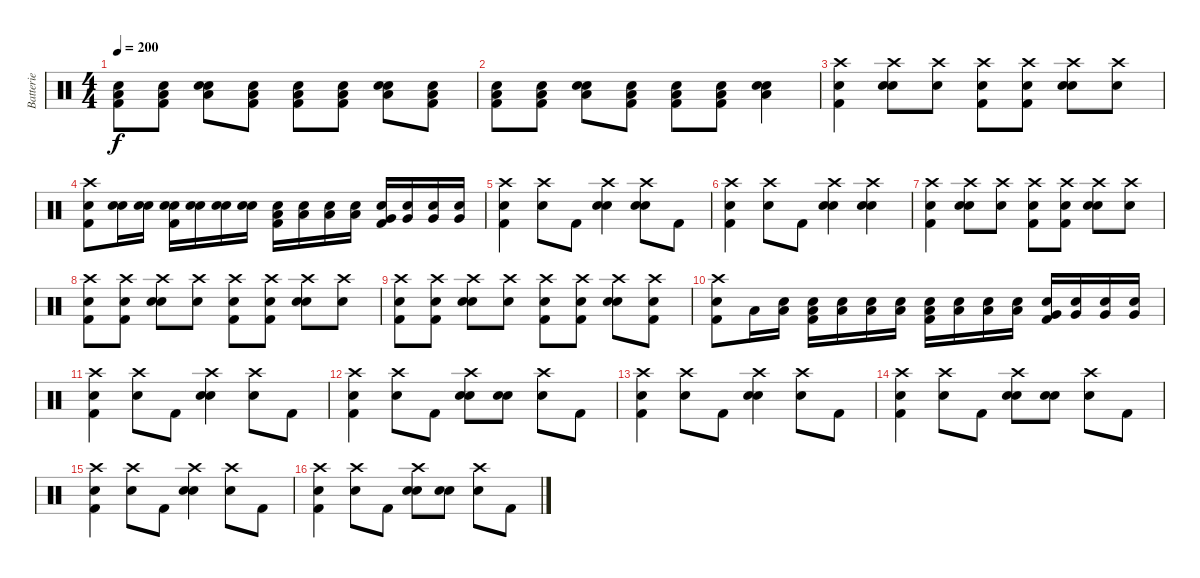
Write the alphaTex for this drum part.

\track ("Batterie" "Batterie") {instrument percussion}
\staff {score}
\articulation defaults
\ts (4 4)
\tempo 200
\clef neutral
\ks c
("Snare (hit)" "Kick (hit) 2" "Low Floor Tom (hit)").8{dy f} ("Snare (hit)" "Kick (hit) 2" "Low Floor Tom (hit)").8 ("Snare (hit)" "Low Floor Tom (hit)" "Electric Snare (hit)").8 ("Snare (hit)" "Kick (hit) 2" "Low Floor Tom (hit)").8 ("Snare (hit)" "Kick (hit) 2" "Low Floor Tom (hit)").8 ("Snare (hit)" "Kick (hit) 2" "Low Floor Tom (hit)").8 ("Snare (hit)" "Low Floor Tom (hit)" "Electric Snare (hit)").8 ("Snare (hit)" "Kick (hit) 2" "Low Floor Tom (hit)").8 |
("Snare (hit)" "Low Floor Tom (hit)" "Kick (hit) 2").8 ("Snare (hit)" "Low Floor Tom (hit)" "Kick (hit) 2").8 ("Snare (hit)" "Low Floor Tom (hit)" "Electric Snare (hit)").8 ("Snare (hit)" "Low Floor Tom (hit)" "Kick (hit) 2").8 ("Snare (hit)" "Low Floor Tom (hit)" "Kick (hit) 2").8 ("Snare (hit)" "Low Floor Tom (hit)" "Kick (hit) 2").8 ("Snare (hit)" "Electric Snare (hit)" "Low Floor Tom (hit)").4 |
("Snare (hit)" "Crash high (hit)" "Kick (hit) 2").4 ("Snare (hit)" "Crash high (hit)" "Electric Snare (hit)").8 ("Snare (hit)" "Crash high (hit)").8 ("Snare (hit)" "Crash high (hit)" "Kick (hit) 2").8 ("Snare (hit)" "Crash high (hit)" "Kick (hit) 2").8 ("Snare (hit)" "Crash high (hit)" "Electric Snare (hit)").8 ("Snare (hit)" "Crash high (hit)").8 |
("Snare (hit)" "Crash high (hit)" "Kick (hit) 2").8 ("Snare (hit)" "Electric Snare (hit)").16 ("Snare (hit)" "Electric Snare (hit)").16 ("Snare (hit)" "Electric Snare (hit)" "Kick (hit) 2").16 ("Snare (hit)" "Electric Snare (hit)").16 ("Snare (hit)" "Electric Snare (hit)").16 ("Snare (hit)" "Electric Snare (hit)").16 ("Snare (hit)" "Low Floor Tom (hit)" "Kick (hit) 2").16 ("Snare (hit)" "Low Floor Tom (hit)").16 ("Snare (hit)" "Low Floor Tom (hit)").16 ("Snare (hit)" "Low Floor Tom (hit)").16 ("Snare (hit)" "Very Low Tom (hit)" "Kick (hit) 2").16 ("Snare (hit)" "Very Low Tom (hit)").16 ("Snare (hit)" "Very Low Tom (hit)").16 ("Snare (hit)" "Very Low Tom (hit)").16 |
("Snare (hit)" "Crash high (hit)" "Kick (hit) 2").4 ("Snare (hit)" "Crash high (hit)").8 "Kick (hit) 2".8 ("Snare (hit)" "Crash high (hit)" "Electric Snare (hit)").4 ("Snare (hit)" "Crash high (hit)" "Electric Snare (hit)").8 "Kick (hit) 2".8 |
("Snare (hit)" "Crash high (hit)" "Kick (hit) 2").4 ("Snare (hit)" "Crash high (hit)").8 "Kick (hit) 2".8 ("Snare (hit)" "Crash high (hit)" "Electric Snare (hit)").4 ("Snare (hit)" "Crash high (hit)" "Electric Snare (hit)").4 |
("Snare (hit)" "Crash high (hit)" "Kick (hit) 2").4 ("Snare (hit)" "Crash high (hit)" "Electric Snare (hit)").8 ("Snare (hit)" "Crash high (hit)").8 ("Snare (hit)" "Crash high (hit)" "Kick (hit) 2").8 ("Snare (hit)" "Crash high (hit)" "Kick (hit) 2").8 ("Snare (hit)" "Crash high (hit)" "Electric Snare (hit)").8 ("Snare (hit)" "Crash high (hit)").8 |
("Snare (hit)" "Crash high (hit)" "Kick (hit) 2").8 ("Snare (hit)" "Crash high (hit)" "Kick (hit) 2").8 ("Snare (hit)" "Crash high (hit)" "Electric Snare (hit)").8 ("Snare (hit)" "Crash high (hit)").8 ("Snare (hit)" "Crash high (hit)" "Kick (hit) 2").8 ("Snare (hit)" "Crash high (hit)" "Kick (hit) 2").8 ("Snare (hit)" "Crash high (hit)" "Electric Snare (hit)").8 ("Snare (hit)" "Crash high (hit)").8 |
("Snare (hit)" "Crash high (hit)" "Kick (hit) 2").8 ("Snare (hit)" "Crash high (hit)" "Kick (hit) 2").8 ("Snare (hit)" "Crash high (hit)" "Electric Snare (hit)").8 ("Snare (hit)" "Crash high (hit)").8 ("Snare (hit)" "Crash high (hit)" "Kick (hit) 2").8 ("Snare (hit)" "Crash high (hit)" "Kick (hit) 2").8 ("Snare (hit)" "Crash high (hit)" "Electric Snare (hit)").8 ("Snare (hit)" "Crash high (hit)" "Kick (hit) 2").8 |
("Snare (hit)" "Crash high (hit)" "Kick (hit) 2").8 "Low Floor Tom (hit)".16 ("Snare (hit)" "Low Floor Tom (hit)").16 ("Snare (hit)" "Low Floor Tom (hit)" "Kick (hit) 2").16 ("Snare (hit)" "Low Floor Tom (hit)").16 ("Snare (hit)" "Low Floor Tom (hit)").16 ("Snare (hit)" "Low Floor Tom (hit)").16 ("Snare (hit)" "Low Floor Tom (hit)" "Kick (hit) 2").16 ("Snare (hit)" "Low Floor Tom (hit)").16 ("Snare (hit)" "Low Floor Tom (hit)").16 ("Snare (hit)" "Low Floor Tom (hit)").16 ("Snare (hit)" "Very Low Tom (hit)" "Kick (hit) 2").16 ("Snare (hit)" "Very Low Tom (hit)").16 ("Snare (hit)" "Very Low Tom (hit)").16 ("Snare (hit)" "Very Low Tom (hit)").16 |
("Snare (hit)" "Crash high (hit)" "Kick (hit) 2").4 ("Snare (hit)" "Crash high (hit)").8 "Kick (hit) 2".8 ("Snare (hit)" "Crash high (hit)" "Electric Snare (hit)").4 ("Snare (hit)" "Crash high (hit)").8 "Kick (hit) 2".8 |
("Snare (hit)" "Crash high (hit)" "Kick (hit) 2").4 ("Snare (hit)" "Crash high (hit)").8 "Kick (hit) 2".8 ("Snare (hit)" "Crash high (hit)" "Electric Snare (hit)").8 ("Snare (hit)" "Electric Snare (hit)").8 ("Snare (hit)" "Crash high (hit)").8 "Kick (hit) 2".8 |
("Snare (hit)" "Crash high (hit)" "Kick (hit) 2").4 ("Snare (hit)" "Crash high (hit)").8 "Kick (hit) 2".8 ("Snare (hit)" "Crash high (hit)" "Electric Snare (hit)").4 ("Snare (hit)" "Crash high (hit)").8 "Kick (hit) 2".8 |
("Snare (hit)" "Crash high (hit)" "Kick (hit) 2").4 ("Snare (hit)" "Crash high (hit)").8 "Kick (hit) 2".8 ("Snare (hit)" "Crash high (hit)" "Electric Snare (hit)").8 ("Snare (hit)" "Electric Snare (hit)").8 ("Snare (hit)" "Crash high (hit)").8 "Kick (hit) 2".8 |
("Snare (hit)" "Crash high (hit)" "Kick (hit) 2").4 ("Snare (hit)" "Crash high (hit)").8 "Kick (hit) 2".8 ("Snare (hit)" "Crash high (hit)" "Electric Snare (hit)").4 ("Snare (hit)" "Crash high (hit)").8 "Kick (hit) 2".8 |
("Snare (hit)" "Crash high (hit)" "Kick (hit) 2").4 ("Snare (hit)" "Crash high (hit)").8 "Kick (hit) 2".8 ("Snare (hit)" "Crash high (hit)" "Electric Snare (hit)").8 ("Snare (hit)" "Electric Snare (hit)").8 ("Snare (hit)" "Crash high (hit)").8 "Kick (hit) 2".8
